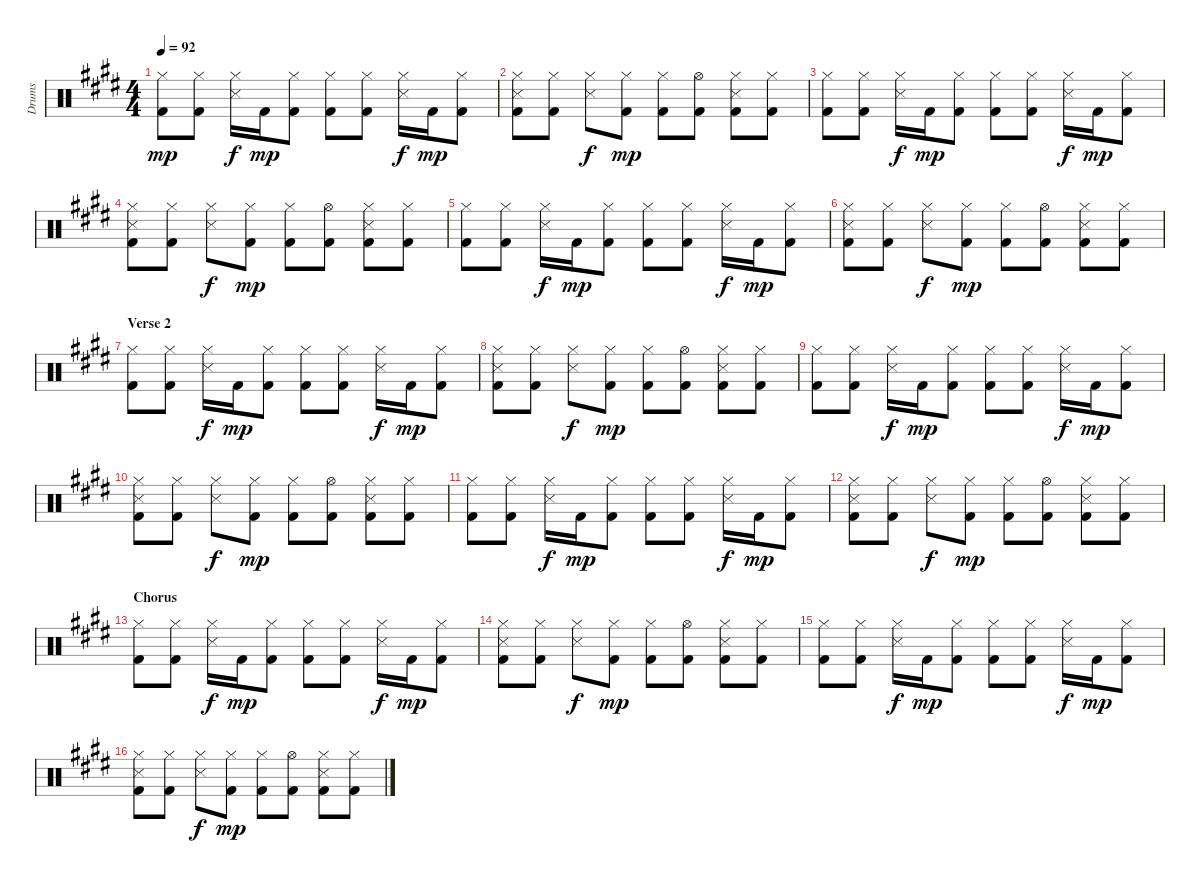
\track ("Drums" "Drums") {instrument percussion}
\staff {score}
\articulation defaults
\ts (4 4)
\tempo 92
\clef neutral
\ks e
("Hi-Hat (closed)" "Kick (hit) 2").8{dy mp} ("Hi-Hat (closed)" "Kick (hit) 2").8 ("Hi-Hat (closed)" "Snare (side stick) 3").16{dy f} "Kick (hit) 2".16{dy mp} ("Hi-Hat (closed)" "Kick (hit) 2").8 ("Hi-Hat (closed)" "Kick (hit) 2").8 ("Hi-Hat (closed)" "Kick (hit) 2").8 ("Hi-Hat (closed)" "Snare (side stick) 3").16{dy f} "Kick (hit) 2".16{dy mp} ("Hi-Hat (closed)" "Kick (hit) 2").8 |
("Hi-Hat (closed)" "Snare (side stick) 3" "Kick (hit) 2").8 ("Hi-Hat (closed)" "Kick (hit) 2").8 ("Hi-Hat (closed)" "Snare (side stick) 3").8{dy f} ("Hi-Hat (closed)" "Kick (hit) 2").8{dy mp} ("Hi-Hat (closed)" "Kick (hit) 2").8 ("Hi-Hat (open)" "Kick (hit) 2").8 ("Hi-Hat (closed)" "Snare (side stick) 3" "Kick (hit) 2").8 ("Hi-Hat (closed)" "Kick (hit) 2").8 |
("Hi-Hat (closed)" "Kick (hit) 2").8 ("Hi-Hat (closed)" "Kick (hit) 2").8 ("Hi-Hat (closed)" "Snare (side stick) 3").16{dy f} "Kick (hit) 2".16{dy mp} ("Hi-Hat (closed)" "Kick (hit) 2").8 ("Hi-Hat (closed)" "Kick (hit) 2").8 ("Hi-Hat (closed)" "Kick (hit) 2").8 ("Hi-Hat (closed)" "Snare (side stick) 3").16{dy f} "Kick (hit) 2".16{dy mp} ("Hi-Hat (closed)" "Kick (hit) 2").8 |
("Hi-Hat (closed)" "Snare (side stick) 3" "Kick (hit) 2").8 ("Hi-Hat (closed)" "Kick (hit) 2").8 ("Hi-Hat (closed)" "Snare (side stick) 3").8{dy f} ("Hi-Hat (closed)" "Kick (hit) 2").8{dy mp} ("Hi-Hat (closed)" "Kick (hit) 2").8 ("Hi-Hat (open)" "Kick (hit) 2").8 ("Hi-Hat (closed)" "Snare (side stick) 3" "Kick (hit) 2").8 ("Hi-Hat (closed)" "Kick (hit) 2").8 |
("Hi-Hat (closed)" "Kick (hit) 2").8 ("Hi-Hat (closed)" "Kick (hit) 2").8 ("Hi-Hat (closed)" "Snare (side stick) 3").16{dy f} "Kick (hit) 2".16{dy mp} ("Hi-Hat (closed)" "Kick (hit) 2").8 ("Hi-Hat (closed)" "Kick (hit) 2").8 ("Hi-Hat (closed)" "Kick (hit) 2").8 ("Hi-Hat (closed)" "Snare (side stick) 3").16{dy f} "Kick (hit) 2".16{dy mp} ("Hi-Hat (closed)" "Kick (hit) 2").8 |
("Hi-Hat (closed)" "Snare (side stick) 3" "Kick (hit) 2").8 ("Hi-Hat (closed)" "Kick (hit) 2").8 ("Hi-Hat (closed)" "Snare (side stick) 3").8{dy f} ("Hi-Hat (closed)" "Kick (hit) 2").8{dy mp} ("Hi-Hat (closed)" "Kick (hit) 2").8 ("Hi-Hat (open)" "Kick (hit) 2").8 ("Hi-Hat (closed)" "Snare (side stick) 3" "Kick (hit) 2").8 ("Hi-Hat (closed)" "Kick (hit) 2").8 |
\section ("" "Verse 2")
("Hi-Hat (closed)" "Kick (hit) 2").8 ("Hi-Hat (closed)" "Kick (hit) 2").8 ("Hi-Hat (closed)" "Snare (side stick) 3").16{dy f} "Kick (hit) 2".16{dy mp} ("Hi-Hat (closed)" "Kick (hit) 2").8 ("Hi-Hat (closed)" "Kick (hit) 2").8 ("Hi-Hat (closed)" "Kick (hit) 2").8 ("Hi-Hat (closed)" "Snare (side stick) 3").16{dy f} "Kick (hit) 2".16{dy mp} ("Hi-Hat (closed)" "Kick (hit) 2").8 |
("Hi-Hat (closed)" "Snare (side stick) 3" "Kick (hit) 2").8 ("Hi-Hat (closed)" "Kick (hit) 2").8 ("Hi-Hat (closed)" "Snare (side stick) 3").8{dy f} ("Hi-Hat (closed)" "Kick (hit) 2").8{dy mp} ("Hi-Hat (closed)" "Kick (hit) 2").8 ("Hi-Hat (open)" "Kick (hit) 2").8 ("Hi-Hat (closed)" "Snare (side stick) 3" "Kick (hit) 2").8 ("Hi-Hat (closed)" "Kick (hit) 2").8 |
("Hi-Hat (closed)" "Kick (hit) 2").8 ("Hi-Hat (closed)" "Kick (hit) 2").8 ("Hi-Hat (closed)" "Snare (side stick) 3").16{dy f} "Kick (hit) 2".16{dy mp} ("Hi-Hat (closed)" "Kick (hit) 2").8 ("Hi-Hat (closed)" "Kick (hit) 2").8 ("Hi-Hat (closed)" "Kick (hit) 2").8 ("Hi-Hat (closed)" "Snare (side stick) 3").16{dy f} "Kick (hit) 2".16{dy mp} ("Hi-Hat (closed)" "Kick (hit) 2").8 |
("Hi-Hat (closed)" "Snare (side stick) 3" "Kick (hit) 2").8 ("Hi-Hat (closed)" "Kick (hit) 2").8 ("Hi-Hat (closed)" "Snare (side stick) 3").8{dy f} ("Hi-Hat (closed)" "Kick (hit) 2").8{dy mp} ("Hi-Hat (closed)" "Kick (hit) 2").8 ("Hi-Hat (open)" "Kick (hit) 2").8 ("Hi-Hat (closed)" "Snare (side stick) 3" "Kick (hit) 2").8 ("Hi-Hat (closed)" "Kick (hit) 2").8 |
("Hi-Hat (closed)" "Kick (hit) 2").8 ("Hi-Hat (closed)" "Kick (hit) 2").8 ("Hi-Hat (closed)" "Snare (side stick) 3").16{dy f} "Kick (hit) 2".16{dy mp} ("Hi-Hat (closed)" "Kick (hit) 2").8 ("Hi-Hat (closed)" "Kick (hit) 2").8 ("Hi-Hat (closed)" "Kick (hit) 2").8 ("Hi-Hat (closed)" "Snare (side stick) 3").16{dy f} "Kick (hit) 2".16{dy mp} ("Hi-Hat (closed)" "Kick (hit) 2").8 |
("Hi-Hat (closed)" "Snare (side stick) 3" "Kick (hit) 2").8 ("Hi-Hat (closed)" "Kick (hit) 2").8 ("Hi-Hat (closed)" "Snare (side stick) 3").8{dy f} ("Hi-Hat (closed)" "Kick (hit) 2").8{dy mp} ("Hi-Hat (closed)" "Kick (hit) 2").8 ("Hi-Hat (open)" "Kick (hit) 2").8 ("Hi-Hat (closed)" "Snare (side stick) 3" "Kick (hit) 2").8 ("Hi-Hat (closed)" "Kick (hit) 2").8 |
\section ("" "Chorus")
("Hi-Hat (closed)" "Kick (hit) 2").8 ("Hi-Hat (closed)" "Kick (hit) 2").8 ("Hi-Hat (closed)" "Snare (side stick) 3").16{dy f} "Kick (hit) 2".16{dy mp} ("Hi-Hat (closed)" "Kick (hit) 2").8 ("Hi-Hat (closed)" "Kick (hit) 2").8 ("Hi-Hat (closed)" "Kick (hit) 2").8 ("Hi-Hat (closed)" "Snare (side stick) 3").16{dy f} "Kick (hit) 2".16{dy mp} ("Hi-Hat (closed)" "Kick (hit) 2").8 |
("Hi-Hat (closed)" "Snare (side stick) 3" "Kick (hit) 2").8 ("Hi-Hat (closed)" "Kick (hit) 2").8 ("Hi-Hat (closed)" "Snare (side stick) 3").8{dy f} ("Hi-Hat (closed)" "Kick (hit) 2").8{dy mp} ("Hi-Hat (closed)" "Kick (hit) 2").8 ("Hi-Hat (open)" "Kick (hit) 2").8 ("Hi-Hat (closed)" "Snare (side stick) 3" "Kick (hit) 2").8 ("Hi-Hat (closed)" "Kick (hit) 2").8 |
("Hi-Hat (closed)" "Kick (hit) 2").8 ("Hi-Hat (closed)" "Kick (hit) 2").8 ("Hi-Hat (closed)" "Snare (side stick) 3").16{dy f} "Kick (hit) 2".16{dy mp} ("Hi-Hat (closed)" "Kick (hit) 2").8 ("Hi-Hat (closed)" "Kick (hit) 2").8 ("Hi-Hat (closed)" "Kick (hit) 2").8 ("Hi-Hat (closed)" "Snare (side stick) 3").16{dy f} "Kick (hit) 2".16{dy mp} ("Hi-Hat (closed)" "Kick (hit) 2").8 |
("Hi-Hat (closed)" "Snare (side stick) 3" "Kick (hit) 2").8 ("Hi-Hat (closed)" "Kick (hit) 2").8 ("Hi-Hat (closed)" "Snare (side stick) 3").8{dy f} ("Hi-Hat (closed)" "Kick (hit) 2").8{dy mp} ("Hi-Hat (closed)" "Kick (hit) 2").8 ("Hi-Hat (open)" "Kick (hit) 2").8 ("Hi-Hat (closed)" "Snare (side stick) 3" "Kick (hit) 2").8 ("Hi-Hat (closed)" "Kick (hit) 2").8
